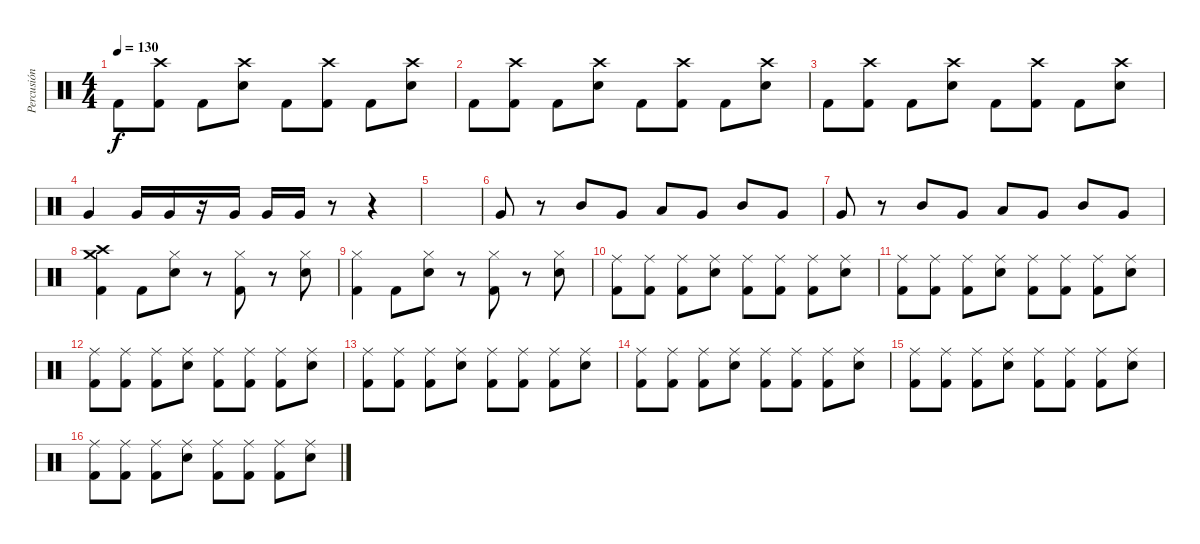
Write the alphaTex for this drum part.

\track ("Percusión" "Percusión") {instrument percussion}
\staff {score}
\articulation defaults
\ts (4 4)
\tempo 130
\clef neutral
\ks c "Kick (hit) 2".8{dy f}
("Kick (hit) 2" "Crash high (hit)").8 "Kick (hit) 2".8 ("Snare (hit) 2" "Crash high (hit)").8 "Kick (hit) 2".8 ("Kick (hit) 2" "Crash high (hit)").8 "Kick (hit) 2".8 ("Snare (hit) 2" "Crash high (hit)").8 |
"Kick (hit) 2".8 ("Kick (hit) 2" "Crash high (hit)").8 "Kick (hit) 2".8 ("Snare (hit) 2" "Crash high (hit)").8 "Kick (hit) 2".8 ("Kick (hit) 2" "Crash high (hit)").8 "Kick (hit) 2".8 ("Snare (hit) 2" "Crash high (hit)").8 |
"Kick (hit) 2".8 ("Kick (hit) 2" "Crash high (hit)").8 "Kick (hit) 2".8 ("Snare (hit) 2" "Crash high (hit)").8 "Kick (hit) 2".8 ("Kick (hit) 2" "Crash high (hit)").8 "Kick (hit) 2".8 ("Snare (hit) 2" "Crash high (hit)").8 |
"Very Low Tom (hit)".4 "Very Low Tom (hit)".16 "Very Low Tom (hit)".16 r.16 "Very Low Tom (hit)".16 "Very Low Tom (hit)".16 "Very Low Tom (hit)".16 r.8 r.4 |
|
"Very Low Tom (hit)".8 r.8 "Mid Tom (hit)".8 "Very Low Tom (hit)".8 "Low Floor Tom (hit)".8 "Very Low Tom (hit)".8 "Mid Tom (hit)".8 "Very Low Tom (hit)".8 |
"Very Low Tom (hit)".8 r.8 "Mid Tom (hit)".8 "Very Low Tom (hit)".8 "Low Floor Tom (hit)".8 "Very Low Tom (hit)".8 "Mid Tom (hit)".8 "Very Low Tom (hit)".8 |
("Crash high (hit)" "Crash medium (hit)" "Kick (hit) 2").4 "Kick (hit) 2".8 ("Snare (hit) 2" "Hi-Hat (closed)").8 r.8 ("Kick (hit) 2" "Hi-Hat (closed)").8 r.8 ("Snare (hit) 2" "Hi-Hat (closed)").8 |
("Kick (hit) 2" "Hi-Hat (closed)").4 "Kick (hit) 2".8 ("Snare (hit) 2" "Hi-Hat (closed)").8 r.8 ("Kick (hit) 2" "Hi-Hat (closed)").8 r.8 ("Snare (hit) 2" "Hi-Hat (closed)").8 |
("Kick (hit) 2" "Ride (middle)").8 ("Kick (hit) 2" "Ride (middle)").8 ("Kick (hit) 2" "Ride (middle)").8 ("Snare (hit) 2" "Ride (middle)").8 ("Kick (hit) 2" "Ride (middle)").8 ("Kick (hit) 2" "Ride (middle)").8 ("Kick (hit) 2" "Ride (middle)").8 ("Snare (hit) 2" "Ride (middle)").8 |
("Kick (hit) 2" "Ride (middle)").8 ("Kick (hit) 2" "Ride (middle)").8 ("Kick (hit) 2" "Ride (middle)").8 ("Snare (hit) 2" "Ride (middle)").8 ("Kick (hit) 2" "Ride (middle)").8 ("Kick (hit) 2" "Ride (middle)").8 ("Kick (hit) 2" "Ride (middle)").8 ("Snare (hit) 2" "Ride (middle)").8 |
("Kick (hit) 2" "Ride (middle)").8 ("Kick (hit) 2" "Ride (middle)").8 ("Kick (hit) 2" "Ride (middle)").8 ("Snare (hit) 2" "Ride (middle)").8 ("Kick (hit) 2" "Ride (middle)").8 ("Kick (hit) 2" "Ride (middle)").8 ("Kick (hit) 2" "Ride (middle)").8 ("Snare (hit) 2" "Ride (middle)").8 |
("Kick (hit) 2" "Ride (middle)").8 ("Kick (hit) 2" "Ride (middle)").8 ("Kick (hit) 2" "Ride (middle)").8 ("Snare (hit) 2" "Ride (middle)").8 ("Kick (hit) 2" "Ride (middle)").8 ("Kick (hit) 2" "Ride (middle)").8 ("Kick (hit) 2" "Ride (middle)").8 ("Snare (hit) 2" "Ride (middle)").8 |
("Kick (hit) 2" "Ride (middle)").8 ("Kick (hit) 2" "Ride (middle)").8 ("Kick (hit) 2" "Ride (middle)").8 ("Snare (hit) 2" "Ride (middle)").8 ("Kick (hit) 2" "Ride (middle)").8 ("Kick (hit) 2" "Ride (middle)").8 ("Kick (hit) 2" "Ride (middle)").8 ("Snare (hit) 2" "Ride (middle)").8 |
("Kick (hit) 2" "Ride (middle)").8 ("Kick (hit) 2" "Ride (middle)").8 ("Kick (hit) 2" "Ride (middle)").8 ("Snare (hit) 2" "Ride (middle)").8 ("Kick (hit) 2" "Ride (middle)").8 ("Kick (hit) 2" "Ride (middle)").8 ("Kick (hit) 2" "Ride (middle)").8 ("Snare (hit) 2" "Ride (middle)").8 |
("Kick (hit) 2" "Ride (middle)").8 ("Kick (hit) 2" "Ride (middle)").8 ("Kick (hit) 2" "Ride (middle)").8 ("Snare (hit) 2" "Ride (middle)").8 ("Kick (hit) 2" "Ride (middle)").8 ("Kick (hit) 2" "Ride (middle)").8 ("Kick (hit) 2" "Ride (middle)").8 ("Snare (hit) 2" "Ride (middle)").8
